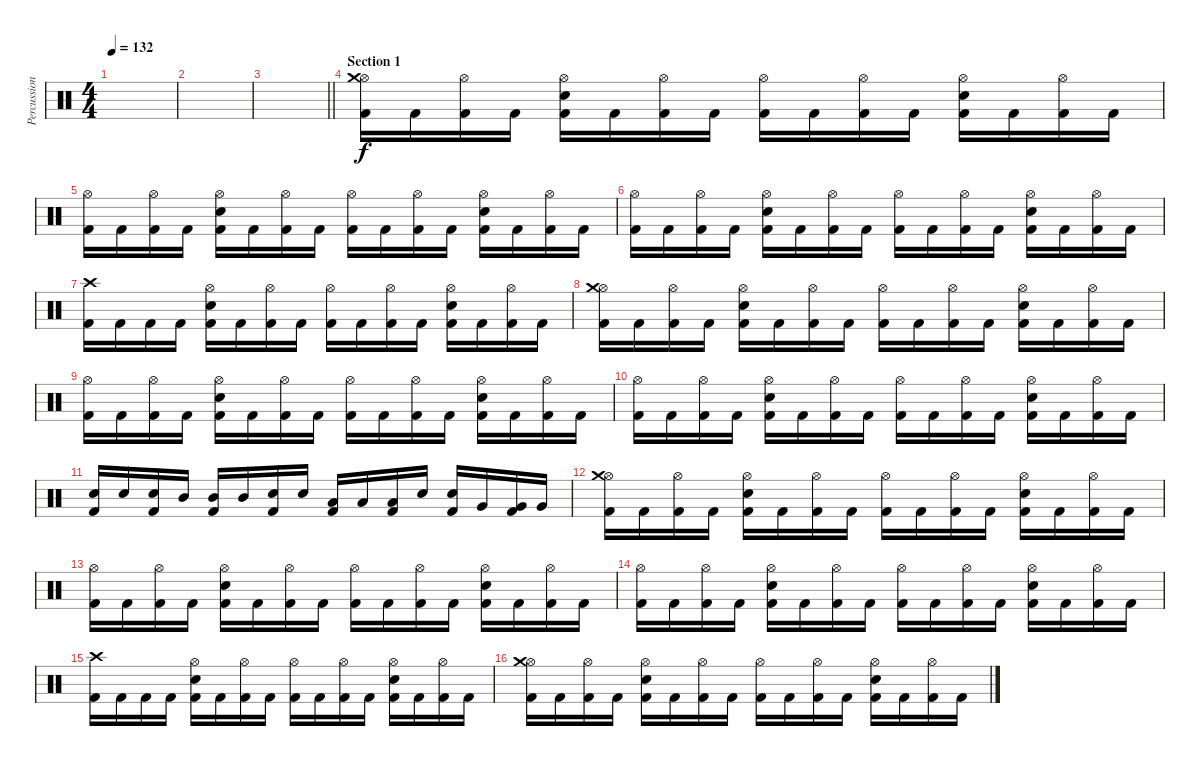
\track ("Percussion" "Percussion") {instrument percussion}
\staff {score}
\articulation defaults
\ts (4 4)
\tempo 132
\clef neutral
\ks c
|
|
\barLineRight lightlight
|
\section ("" "Section 1")
("Kick (hit) 2" "Hi-Hat (open)" "Crash medium (hit)").16 "Kick (hit) 2".16 ("Kick (hit) 2" "Hi-Hat (open)").16 "Kick (hit) 2".16 ("Kick (hit) 2" "Electric Snare (hit)" "Hi-Hat (open)").16 "Kick (hit) 2".16 ("Kick (hit) 2" "Hi-Hat (open)").16 "Kick (hit) 2".16 ("Kick (hit) 2" "Hi-Hat (open)").16 "Kick (hit) 2".16 ("Kick (hit) 2" "Hi-Hat (open)").16 "Kick (hit) 2".16 ("Kick (hit) 2" "Electric Snare (hit)" "Hi-Hat (open)").16 "Kick (hit) 2".16 ("Kick (hit) 2" "Hi-Hat (open)").16 "Kick (hit) 2".16 |
("Kick (hit) 2" "Hi-Hat (open)").16 "Kick (hit) 2".16 ("Kick (hit) 2" "Hi-Hat (open)").16 "Kick (hit) 2".16 ("Kick (hit) 2" "Electric Snare (hit)" "Hi-Hat (open)").16 "Kick (hit) 2".16 ("Kick (hit) 2" "Hi-Hat (open)").16 "Kick (hit) 2".16 ("Kick (hit) 2" "Hi-Hat (open)").16 "Kick (hit) 2".16 ("Kick (hit) 2" "Hi-Hat (open)").16 "Kick (hit) 2".16 ("Kick (hit) 2" "Electric Snare (hit)" "Hi-Hat (open)").16 "Kick (hit) 2".16 ("Kick (hit) 2" "Hi-Hat (open)").16 "Kick (hit) 2".16 |
("Kick (hit) 2" "Hi-Hat (open)").16 "Kick (hit) 2".16 ("Kick (hit) 2" "Hi-Hat (open)").16 "Kick (hit) 2".16 ("Kick (hit) 2" "Electric Snare (hit)" "Hi-Hat (open)").16 "Kick (hit) 2".16 ("Kick (hit) 2" "Hi-Hat (open)").16 "Kick (hit) 2".16 ("Kick (hit) 2" "Hi-Hat (open)").16 "Kick (hit) 2".16 ("Kick (hit) 2" "Hi-Hat (open)").16 "Kick (hit) 2".16 ("Kick (hit) 2" "Electric Snare (hit)" "Hi-Hat (open)").16 "Kick (hit) 2".16 ("Kick (hit) 2" "Hi-Hat (open)").16 "Kick (hit) 2".16 |
("Kick (hit) 2" "Crash high (hit)").16 "Kick (hit) 2".16 "Kick (hit) 2".16 "Kick (hit) 2".16 ("Kick (hit) 2" "Electric Snare (hit)" "Hi-Hat (open)").16 "Kick (hit) 2".16 ("Kick (hit) 2" "Hi-Hat (open)").16 "Kick (hit) 2".16 ("Kick (hit) 2" "Hi-Hat (open)").16 "Kick (hit) 2".16 ("Kick (hit) 2" "Hi-Hat (open)").16 "Kick (hit) 2".16 ("Kick (hit) 2" "Electric Snare (hit)" "Hi-Hat (open)").16 "Kick (hit) 2".16 ("Kick (hit) 2" "Hi-Hat (open)").16 "Kick (hit) 2".16 |
("Kick (hit) 2" "Hi-Hat (open)" "Crash medium (hit)").16 "Kick (hit) 2".16 ("Kick (hit) 2" "Hi-Hat (open)").16 "Kick (hit) 2".16 ("Kick (hit) 2" "Electric Snare (hit)" "Hi-Hat (open)").16 "Kick (hit) 2".16 ("Kick (hit) 2" "Hi-Hat (open)").16 "Kick (hit) 2".16 ("Kick (hit) 2" "Hi-Hat (open)").16 "Kick (hit) 2".16 ("Kick (hit) 2" "Hi-Hat (open)").16 "Kick (hit) 2".16 ("Kick (hit) 2" "Electric Snare (hit)" "Hi-Hat (open)").16 "Kick (hit) 2".16 ("Kick (hit) 2" "Hi-Hat (open)").16 "Kick (hit) 2".16 |
("Kick (hit) 2" "Hi-Hat (open)").16 "Kick (hit) 2".16 ("Kick (hit) 2" "Hi-Hat (open)").16 "Kick (hit) 2".16 ("Kick (hit) 2" "Electric Snare (hit)" "Hi-Hat (open)").16 "Kick (hit) 2".16 ("Kick (hit) 2" "Hi-Hat (open)").16 "Kick (hit) 2".16 ("Kick (hit) 2" "Hi-Hat (open)").16 "Kick (hit) 2".16 ("Kick (hit) 2" "Hi-Hat (open)").16 "Kick (hit) 2".16 ("Kick (hit) 2" "Electric Snare (hit)" "Hi-Hat (open)").16 "Kick (hit) 2".16 ("Kick (hit) 2" "Hi-Hat (open)").16 "Kick (hit) 2".16 |
("Kick (hit) 2" "Hi-Hat (open)").16 "Kick (hit) 2".16 ("Kick (hit) 2" "Hi-Hat (open)").16 "Kick (hit) 2".16 ("Kick (hit) 2" "Electric Snare (hit)" "Hi-Hat (open)").16 "Kick (hit) 2".16 ("Kick (hit) 2" "Hi-Hat (open)").16 "Kick (hit) 2".16 ("Kick (hit) 2" "Hi-Hat (open)").16 "Kick (hit) 2".16 ("Kick (hit) 2" "Hi-Hat (open)").16 "Kick (hit) 2".16 ("Kick (hit) 2" "Electric Snare (hit)" "Hi-Hat (open)").16 "Kick (hit) 2".16 ("Kick (hit) 2" "Hi-Hat (open)").16 "Kick (hit) 2".16 |
("Electric Snare (hit)" "Kick (hit) 2").16 "Electric Snare (hit)".16 ("Electric Snare (hit)" "Kick (hit) 2").16 "Mid Tom (hit)".16 ("Mid Tom (hit)" "Kick (hit) 2").16 "Mid Tom (hit)".16 ("Electric Snare (hit)" "Kick (hit) 2").16 "Electric Snare (hit)".16 ("Low Tom (hit)" "Kick (hit) 2").16 "Low Tom (hit)".16 ("Low Tom (hit)" "Kick (hit) 2").16 "Electric Snare (hit)".16 ("Electric Snare (hit)" "Kick (hit) 2").16 "Very Low Tom (hit)".16 ("Very Low Tom (hit)" "Kick (hit) 2").16 "Very Low Tom (hit)".16 |
("Kick (hit) 2" "Hi-Hat (open)" "Crash medium (hit)").16 "Kick (hit) 2".16 ("Kick (hit) 2" "Hi-Hat (open)").16 "Kick (hit) 2".16 ("Kick (hit) 2" "Electric Snare (hit)" "Hi-Hat (open)").16 "Kick (hit) 2".16 ("Kick (hit) 2" "Hi-Hat (open)").16 "Kick (hit) 2".16 ("Kick (hit) 2" "Hi-Hat (open)").16 "Kick (hit) 2".16 ("Kick (hit) 2" "Hi-Hat (open)").16 "Kick (hit) 2".16 ("Kick (hit) 2" "Electric Snare (hit)" "Hi-Hat (open)").16 "Kick (hit) 2".16 ("Kick (hit) 2" "Hi-Hat (open)").16 "Kick (hit) 2".16 |
("Kick (hit) 2" "Hi-Hat (open)").16 "Kick (hit) 2".16 ("Kick (hit) 2" "Hi-Hat (open)").16 "Kick (hit) 2".16 ("Kick (hit) 2" "Electric Snare (hit)" "Hi-Hat (open)").16 "Kick (hit) 2".16 ("Kick (hit) 2" "Hi-Hat (open)").16 "Kick (hit) 2".16 ("Kick (hit) 2" "Hi-Hat (open)").16 "Kick (hit) 2".16 ("Kick (hit) 2" "Hi-Hat (open)").16 "Kick (hit) 2".16 ("Kick (hit) 2" "Electric Snare (hit)" "Hi-Hat (open)").16 "Kick (hit) 2".16 ("Kick (hit) 2" "Hi-Hat (open)").16 "Kick (hit) 2".16 |
("Kick (hit) 2" "Hi-Hat (open)").16 "Kick (hit) 2".16 ("Kick (hit) 2" "Hi-Hat (open)").16 "Kick (hit) 2".16 ("Kick (hit) 2" "Electric Snare (hit)" "Hi-Hat (open)").16 "Kick (hit) 2".16 ("Kick (hit) 2" "Hi-Hat (open)").16 "Kick (hit) 2".16 ("Kick (hit) 2" "Hi-Hat (open)").16 "Kick (hit) 2".16 ("Kick (hit) 2" "Hi-Hat (open)").16 "Kick (hit) 2".16 ("Kick (hit) 2" "Electric Snare (hit)" "Hi-Hat (open)").16 "Kick (hit) 2".16 ("Kick (hit) 2" "Hi-Hat (open)").16 "Kick (hit) 2".16 |
("Kick (hit) 2" "Crash high (hit)").16 "Kick (hit) 2".16 "Kick (hit) 2".16 "Kick (hit) 2".16 ("Kick (hit) 2" "Electric Snare (hit)" "Hi-Hat (open)").16 "Kick (hit) 2".16 ("Kick (hit) 2" "Hi-Hat (open)").16 "Kick (hit) 2".16 ("Kick (hit) 2" "Hi-Hat (open)").16 "Kick (hit) 2".16 ("Kick (hit) 2" "Hi-Hat (open)").16 "Kick (hit) 2".16 ("Kick (hit) 2" "Electric Snare (hit)" "Hi-Hat (open)").16 "Kick (hit) 2".16 ("Kick (hit) 2" "Hi-Hat (open)").16 "Kick (hit) 2".16 |
("Kick (hit) 2" "Hi-Hat (open)" "Crash medium (hit)").16 "Kick (hit) 2".16 ("Kick (hit) 2" "Hi-Hat (open)").16 "Kick (hit) 2".16 ("Kick (hit) 2" "Electric Snare (hit)" "Hi-Hat (open)").16 "Kick (hit) 2".16 ("Kick (hit) 2" "Hi-Hat (open)").16 "Kick (hit) 2".16 ("Kick (hit) 2" "Hi-Hat (open)").16 "Kick (hit) 2".16 ("Kick (hit) 2" "Hi-Hat (open)").16 "Kick (hit) 2".16 ("Kick (hit) 2" "Electric Snare (hit)" "Hi-Hat (open)").16 "Kick (hit) 2".16 ("Kick (hit) 2" "Hi-Hat (open)").16 "Kick (hit) 2".16
